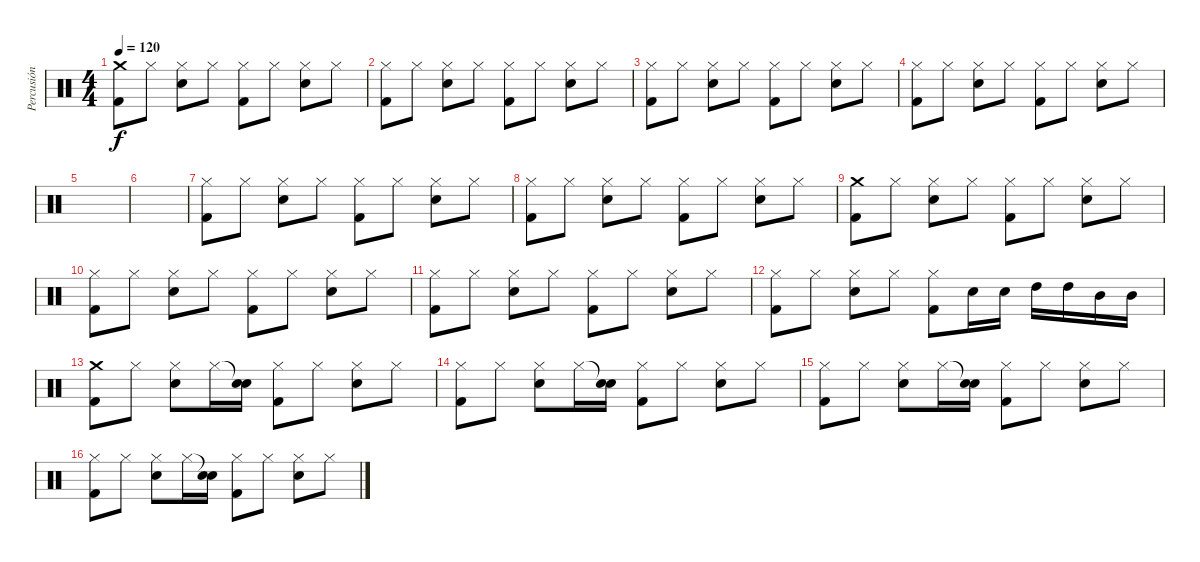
\track ("Percusión" "Percusión") {instrument percussion}
\staff {score}
\articulation defaults
\ts (4 4)
\tempo 120
\clef neutral
\ks c
("Crash medium (hit)" "Kick (hit) 2").8{dy f} "Hi-Hat (closed)".8 ("Hi-Hat (closed)" "Electric Snare (hit)").8 "Hi-Hat (closed)".8 ("Hi-Hat (closed)" "Kick (hit) 2").8 "Hi-Hat (closed)".8 ("Hi-Hat (closed)" "Electric Snare (hit)").8 "Hi-Hat (closed)".8 |
("Hi-Hat (closed)" "Kick (hit) 2").8 "Hi-Hat (closed)".8 ("Hi-Hat (closed)" "Electric Snare (hit)").8 "Hi-Hat (closed)".8 ("Hi-Hat (closed)" "Kick (hit) 2").8 "Hi-Hat (closed)".8 ("Hi-Hat (closed)" "Electric Snare (hit)").8 "Hi-Hat (closed)".8 |
("Hi-Hat (closed)" "Kick (hit) 2").8 "Hi-Hat (closed)".8 ("Hi-Hat (closed)" "Electric Snare (hit)").8 "Hi-Hat (closed)".8 ("Hi-Hat (closed)" "Kick (hit) 2").8 "Hi-Hat (closed)".8 ("Hi-Hat (closed)" "Electric Snare (hit)").8 "Hi-Hat (closed)".8 |
("Hi-Hat (closed)" "Kick (hit) 2").8 "Hi-Hat (closed)".8 ("Hi-Hat (closed)" "Electric Snare (hit)").8 "Hi-Hat (closed)".8 ("Hi-Hat (closed)" "Kick (hit) 2").8 "Hi-Hat (closed)".8 ("Hi-Hat (closed)" "Electric Snare (hit)").8 "Hi-Hat (closed)".8 |
|
|
("Hi-Hat (closed)" "Kick (hit) 2").8 "Hi-Hat (closed)".8 ("Hi-Hat (closed)" "Electric Snare (hit)").8 "Hi-Hat (closed)".8 ("Hi-Hat (closed)" "Kick (hit) 2").8 "Hi-Hat (closed)".8 ("Hi-Hat (closed)" "Electric Snare (hit)").8 "Hi-Hat (closed)".8 |
("Hi-Hat (closed)" "Kick (hit) 2").8 "Hi-Hat (closed)".8 ("Hi-Hat (closed)" "Electric Snare (hit)").8 "Hi-Hat (closed)".8 ("Hi-Hat (closed)" "Kick (hit) 2").8 "Hi-Hat (closed)".8 ("Hi-Hat (closed)" "Electric Snare (hit)").8 "Hi-Hat (closed)".8 |
("Crash medium (hit)" "Kick (hit) 2").8 "Hi-Hat (closed)".8 ("Hi-Hat (closed)" "Electric Snare (hit)").8 "Hi-Hat (closed)".8 ("Hi-Hat (closed)" "Kick (hit) 2").8 "Hi-Hat (closed)".8 ("Hi-Hat (closed)" "Electric Snare (hit)").8 "Hi-Hat (closed)".8 |
("Hi-Hat (closed)" "Kick (hit) 2").8 "Hi-Hat (closed)".8 ("Hi-Hat (closed)" "Electric Snare (hit)").8 "Hi-Hat (closed)".8 ("Hi-Hat (closed)" "Kick (hit) 2").8 "Hi-Hat (closed)".8 ("Hi-Hat (closed)" "Electric Snare (hit)").8 "Hi-Hat (closed)".8 |
("Hi-Hat (closed)" "Kick (hit) 2").8 "Hi-Hat (closed)".8 ("Hi-Hat (closed)" "Electric Snare (hit)").8 "Hi-Hat (closed)".8 ("Hi-Hat (closed)" "Kick (hit) 2").8 "Hi-Hat (closed)".8 ("Hi-Hat (closed)" "Electric Snare (hit)").8 "Hi-Hat (closed)".8 |
("Hi-Hat (closed)" "Kick (hit) 2").8 "Hi-Hat (closed)".8 ("Hi-Hat (closed)" "Electric Snare (hit)").8 "Hi-Hat (closed)".8 ("Hi-Hat (closed)" "Kick (hit) 2").8 "Electric Snare (hit)".16 "Electric Snare (hit)".16 "High Tom (hit)".16 "High Tom (hit)".16 "Mid Tom (hit)".16 "Mid Tom (hit)".16 |
("Crash medium (hit)" "Kick (hit) 2").8 "Hi-Hat (closed)".8 ("Hi-Hat (closed)" "Electric Snare (hit)").8 "Hi-Hat (closed)".16 ("Snare (hit)"{t} "Electric Snare (hit)").16 ("Hi-Hat (closed)" "Kick (hit) 2").8 "Hi-Hat (closed)".8 ("Hi-Hat (closed)" "Electric Snare (hit)").8 "Hi-Hat (closed)".8 |
("Hi-Hat (closed)" "Kick (hit) 2").8 "Hi-Hat (closed)".8 ("Hi-Hat (closed)" "Electric Snare (hit)").8 "Hi-Hat (closed)".16 ("Snare (hit)"{t} "Electric Snare (hit)").16 ("Hi-Hat (closed)" "Kick (hit) 2").8 "Hi-Hat (closed)".8 ("Hi-Hat (closed)" "Electric Snare (hit)").8 "Hi-Hat (closed)".8 |
("Hi-Hat (closed)" "Kick (hit) 2").8 "Hi-Hat (closed)".8 ("Hi-Hat (closed)" "Electric Snare (hit)").8 "Hi-Hat (closed)".16 ("Snare (hit)"{t} "Electric Snare (hit)").16 ("Hi-Hat (closed)" "Kick (hit) 2").8 "Hi-Hat (closed)".8 ("Hi-Hat (closed)" "Electric Snare (hit)").8 "Hi-Hat (closed)".8 |
("Hi-Hat (closed)" "Kick (hit) 2").8 "Hi-Hat (closed)".8 ("Hi-Hat (closed)" "Electric Snare (hit)").8 "Hi-Hat (closed)".16 ("Snare (hit)"{t} "Electric Snare (hit)").16 ("Hi-Hat (closed)" "Kick (hit) 2").8 "Hi-Hat (closed)".8 ("Hi-Hat (closed)" "Electric Snare (hit)").8 "Hi-Hat (closed)".8
